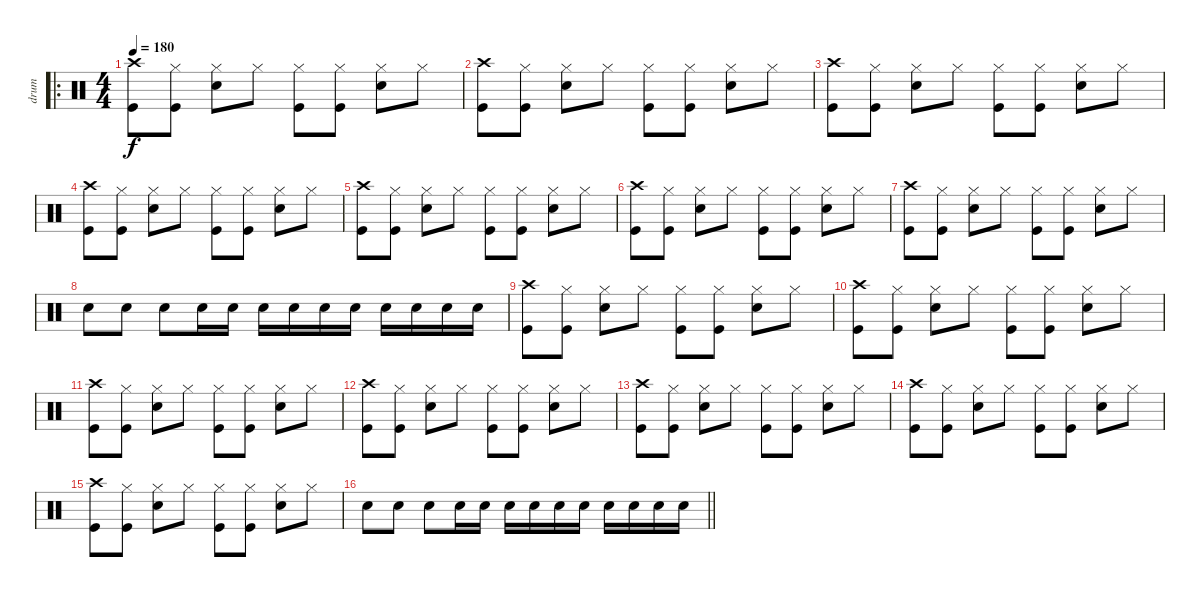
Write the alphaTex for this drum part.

\track ("drum" "drum") {instrument percussion}
\staff {score}
\articulation defaults
\ro
\ts (4 4)
\tempo 180
\clef neutral
\ks c
("Crash high (hit)" "Kick (hit)").8{dy f} ("Kick (hit)" "Hi-Hat (closed)").8 ("Snare (hit) 2" "Hi-Hat (closed)").8 "Hi-Hat (closed)".8 ("Kick (hit)" "Hi-Hat (closed)").8 ("Kick (hit)" "Hi-Hat (closed)").8 ("Snare (hit) 2" "Hi-Hat (closed)").8 "Hi-Hat (closed)".8 |
("Crash high (hit)" "Kick (hit)").8 ("Kick (hit)" "Hi-Hat (closed)").8 ("Snare (hit) 2" "Hi-Hat (closed)").8 "Hi-Hat (closed)".8 ("Kick (hit)" "Hi-Hat (closed)").8 ("Kick (hit)" "Hi-Hat (closed)").8 ("Snare (hit) 2" "Hi-Hat (closed)").8 "Hi-Hat (closed)".8 |
("Crash high (hit)" "Kick (hit)").8 ("Kick (hit)" "Hi-Hat (closed)").8 ("Snare (hit) 2" "Hi-Hat (closed)").8 "Hi-Hat (closed)".8 ("Kick (hit)" "Hi-Hat (closed)").8 ("Kick (hit)" "Hi-Hat (closed)").8 ("Snare (hit) 2" "Hi-Hat (closed)").8 "Hi-Hat (closed)".8 |
("Crash high (hit)" "Kick (hit)").8 ("Kick (hit)" "Hi-Hat (closed)").8 ("Snare (hit) 2" "Hi-Hat (closed)").8 "Hi-Hat (closed)".8 ("Kick (hit)" "Hi-Hat (closed)").8 ("Kick (hit)" "Hi-Hat (closed)").8 ("Snare (hit) 2" "Hi-Hat (closed)").8 "Hi-Hat (closed)".8 |
("Crash high (hit)" "Kick (hit)").8 ("Kick (hit)" "Hi-Hat (closed)").8 ("Snare (hit) 2" "Hi-Hat (closed)").8 "Hi-Hat (closed)".8 ("Kick (hit)" "Hi-Hat (closed)").8 ("Kick (hit)" "Hi-Hat (closed)").8 ("Snare (hit) 2" "Hi-Hat (closed)").8 "Hi-Hat (closed)".8 |
("Crash high (hit)" "Kick (hit)").8 ("Kick (hit)" "Hi-Hat (closed)").8 ("Snare (hit) 2" "Hi-Hat (closed)").8 "Hi-Hat (closed)".8 ("Kick (hit)" "Hi-Hat (closed)").8 ("Kick (hit)" "Hi-Hat (closed)").8 ("Snare (hit) 2" "Hi-Hat (closed)").8 "Hi-Hat (closed)".8 |
("Crash high (hit)" "Kick (hit)").8 ("Kick (hit)" "Hi-Hat (closed)").8 ("Snare (hit) 2" "Hi-Hat (closed)").8 "Hi-Hat (closed)".8 ("Kick (hit)" "Hi-Hat (closed)").8 ("Kick (hit)" "Hi-Hat (closed)").8 ("Snare (hit) 2" "Hi-Hat (closed)").8 "Hi-Hat (closed)".8 |
"Snare (hit) 2".8 "Snare (hit) 2".8 "Snare (hit) 2".8 "Snare (hit) 2".16 "Snare (hit) 2".16 "Snare (hit) 2".16 "Snare (hit) 2".16 "Snare (hit) 2".16 "Snare (hit) 2".16 "Snare (hit) 2".16 "Snare (hit) 2".16 "Snare (hit) 2".16 "Snare (hit) 2".16 |
("Crash high (hit)" "Kick (hit)").8 ("Kick (hit)" "Hi-Hat (closed)").8 ("Snare (hit) 2" "Hi-Hat (closed)").8 "Hi-Hat (closed)".8 ("Kick (hit)" "Hi-Hat (closed)").8 ("Kick (hit)" "Hi-Hat (closed)").8 ("Snare (hit) 2" "Hi-Hat (closed)").8 "Hi-Hat (closed)".8 |
("Crash high (hit)" "Kick (hit)").8 ("Kick (hit)" "Hi-Hat (closed)").8 ("Snare (hit) 2" "Hi-Hat (closed)").8 "Hi-Hat (closed)".8 ("Kick (hit)" "Hi-Hat (closed)").8 ("Kick (hit)" "Hi-Hat (closed)").8 ("Snare (hit) 2" "Hi-Hat (closed)").8 "Hi-Hat (closed)".8 |
("Crash high (hit)" "Kick (hit)").8 ("Kick (hit)" "Hi-Hat (closed)").8 ("Snare (hit) 2" "Hi-Hat (closed)").8 "Hi-Hat (closed)".8 ("Kick (hit)" "Hi-Hat (closed)").8 ("Kick (hit)" "Hi-Hat (closed)").8 ("Snare (hit) 2" "Hi-Hat (closed)").8 "Hi-Hat (closed)".8 |
("Crash high (hit)" "Kick (hit)").8 ("Kick (hit)" "Hi-Hat (closed)").8 ("Snare (hit) 2" "Hi-Hat (closed)").8 "Hi-Hat (closed)".8 ("Kick (hit)" "Hi-Hat (closed)").8 ("Kick (hit)" "Hi-Hat (closed)").8 ("Snare (hit) 2" "Hi-Hat (closed)").8 "Hi-Hat (closed)".8 |
("Crash high (hit)" "Kick (hit)").8 ("Kick (hit)" "Hi-Hat (closed)").8 ("Snare (hit) 2" "Hi-Hat (closed)").8 "Hi-Hat (closed)".8 ("Kick (hit)" "Hi-Hat (closed)").8 ("Kick (hit)" "Hi-Hat (closed)").8 ("Snare (hit) 2" "Hi-Hat (closed)").8 "Hi-Hat (closed)".8 |
("Crash high (hit)" "Kick (hit)").8 ("Kick (hit)" "Hi-Hat (closed)").8 ("Snare (hit) 2" "Hi-Hat (closed)").8 "Hi-Hat (closed)".8 ("Kick (hit)" "Hi-Hat (closed)").8 ("Kick (hit)" "Hi-Hat (closed)").8 ("Snare (hit) 2" "Hi-Hat (closed)").8 "Hi-Hat (closed)".8 |
("Crash high (hit)" "Kick (hit)").8 ("Kick (hit)" "Hi-Hat (closed)").8 ("Snare (hit) 2" "Hi-Hat (closed)").8 "Hi-Hat (closed)".8 ("Kick (hit)" "Hi-Hat (closed)").8 ("Kick (hit)" "Hi-Hat (closed)").8 ("Snare (hit) 2" "Hi-Hat (closed)").8 "Hi-Hat (closed)".8 |
\barLineRight lightlight "Snare (hit) 2".8 "Snare (hit) 2".8 "Snare (hit) 2".8 "Snare (hit) 2".16 "Snare (hit) 2".16 "Snare (hit) 2".16 "Snare (hit) 2".16 "Snare (hit) 2".16 "Snare (hit) 2".16 "Snare (hit) 2".16 "Snare (hit) 2".16 "Snare (hit) 2".16 "Snare (hit) 2".16
